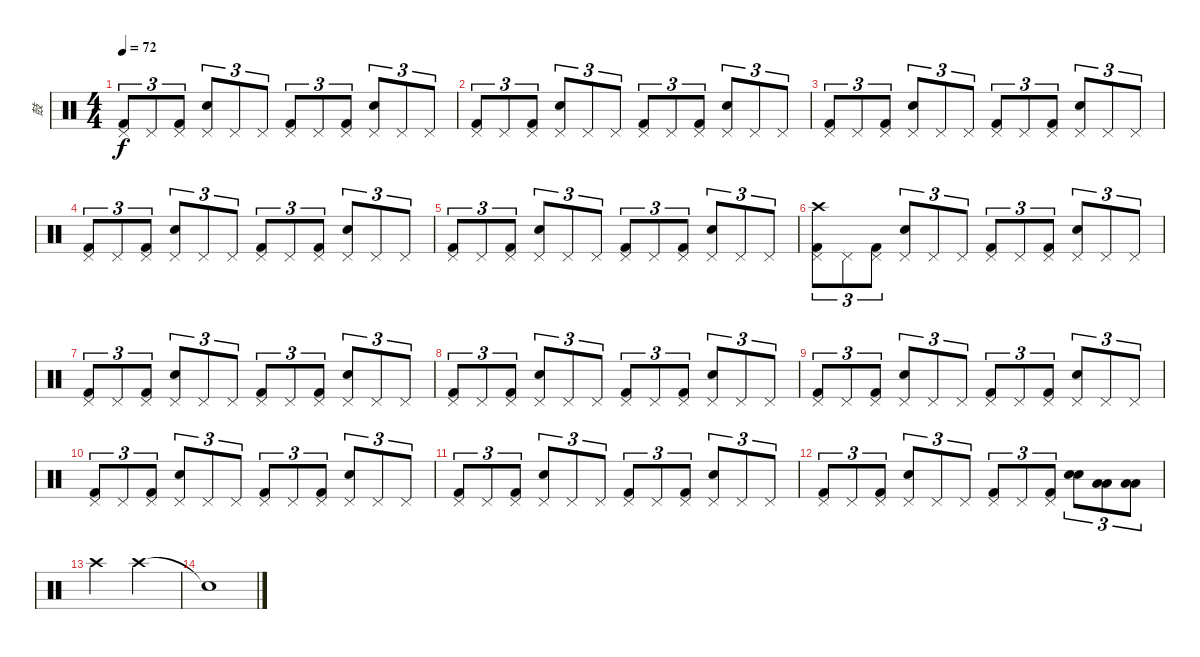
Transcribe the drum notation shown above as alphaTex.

\track ("鼓" "鼓") {instrument percussion}
\staff {score}
\articulation defaults
\ts (4 4)
\tempo 72
\clef neutral
\ks c
("Pedal Hi-Hat (hit)" "Kick (hit) 2").8{tu (3 2) dy f} "Pedal Hi-Hat (hit)".8{tu (3 2)} ("Pedal Hi-Hat (hit)" "Kick (hit) 2").8{tu (3 2)} ("Pedal Hi-Hat (hit)" "Electric Snare (hit)").8{tu (3 2)} "Pedal Hi-Hat (hit)".8{tu (3 2)} "Pedal Hi-Hat (hit)".8{tu (3 2)} ("Pedal Hi-Hat (hit)" "Kick (hit) 2").8{tu (3 2)} "Pedal Hi-Hat (hit)".8{tu (3 2)} ("Pedal Hi-Hat (hit)" "Kick (hit) 2").8{tu (3 2)} ("Pedal Hi-Hat (hit)" "Electric Snare (hit)").8{tu (3 2)} "Pedal Hi-Hat (hit)".8{tu (3 2)} "Pedal Hi-Hat (hit)".8{tu (3 2)} |
("Pedal Hi-Hat (hit)" "Kick (hit) 2").8{tu (3 2)} "Pedal Hi-Hat (hit)".8{tu (3 2)} ("Pedal Hi-Hat (hit)" "Kick (hit) 2").8{tu (3 2)} ("Pedal Hi-Hat (hit)" "Electric Snare (hit)").8{tu (3 2)} "Pedal Hi-Hat (hit)".8{tu (3 2)} "Pedal Hi-Hat (hit)".8{tu (3 2)} ("Pedal Hi-Hat (hit)" "Kick (hit) 2").8{tu (3 2)} "Pedal Hi-Hat (hit)".8{tu (3 2)} ("Pedal Hi-Hat (hit)" "Kick (hit) 2").8{tu (3 2)} ("Pedal Hi-Hat (hit)" "Electric Snare (hit)").8{tu (3 2)} "Pedal Hi-Hat (hit)".8{tu (3 2)} "Pedal Hi-Hat (hit)".8{tu (3 2)} |
("Pedal Hi-Hat (hit)" "Kick (hit) 2").8{tu (3 2)} "Pedal Hi-Hat (hit)".8{tu (3 2)} ("Pedal Hi-Hat (hit)" "Kick (hit) 2").8{tu (3 2)} ("Pedal Hi-Hat (hit)" "Electric Snare (hit)").8{tu (3 2)} "Pedal Hi-Hat (hit)".8{tu (3 2)} "Pedal Hi-Hat (hit)".8{tu (3 2)} ("Pedal Hi-Hat (hit)" "Kick (hit) 2").8{tu (3 2)} "Pedal Hi-Hat (hit)".8{tu (3 2)} ("Pedal Hi-Hat (hit)" "Kick (hit) 2").8{tu (3 2)} ("Pedal Hi-Hat (hit)" "Electric Snare (hit)").8{tu (3 2)} "Pedal Hi-Hat (hit)".8{tu (3 2)} "Pedal Hi-Hat (hit)".8{tu (3 2)} |
("Pedal Hi-Hat (hit)" "Kick (hit) 2").8{tu (3 2)} "Pedal Hi-Hat (hit)".8{tu (3 2)} ("Pedal Hi-Hat (hit)" "Kick (hit) 2").8{tu (3 2)} ("Pedal Hi-Hat (hit)" "Electric Snare (hit)").8{tu (3 2)} "Pedal Hi-Hat (hit)".8{tu (3 2)} "Pedal Hi-Hat (hit)".8{tu (3 2)} ("Pedal Hi-Hat (hit)" "Kick (hit) 2").8{tu (3 2)} "Pedal Hi-Hat (hit)".8{tu (3 2)} ("Pedal Hi-Hat (hit)" "Kick (hit) 2").8{tu (3 2)} ("Pedal Hi-Hat (hit)" "Electric Snare (hit)").8{tu (3 2)} "Pedal Hi-Hat (hit)".8{tu (3 2)} "Pedal Hi-Hat (hit)".8{tu (3 2)} |
("Pedal Hi-Hat (hit)" "Kick (hit) 2").8{tu (3 2)} "Pedal Hi-Hat (hit)".8{tu (3 2)} ("Pedal Hi-Hat (hit)" "Kick (hit) 2").8{tu (3 2)} ("Pedal Hi-Hat (hit)" "Electric Snare (hit)").8{tu (3 2)} "Pedal Hi-Hat (hit)".8{tu (3 2)} "Pedal Hi-Hat (hit)".8{tu (3 2)} ("Pedal Hi-Hat (hit)" "Kick (hit) 2").8{tu (3 2)} "Pedal Hi-Hat (hit)".8{tu (3 2)} ("Pedal Hi-Hat (hit)" "Kick (hit) 2").8{tu (3 2)} ("Pedal Hi-Hat (hit)" "Electric Snare (hit)").8{tu (3 2)} "Pedal Hi-Hat (hit)".8{tu (3 2)} "Pedal Hi-Hat (hit)".8{tu (3 2)} |
("Pedal Hi-Hat (hit)" "Kick (hit) 2" "Crash high (hit)").8{tu (3 2)} "Pedal Hi-Hat (hit)".8{tu (3 2)} ("Pedal Hi-Hat (hit)" "Kick (hit) 2").8{tu (3 2)} ("Pedal Hi-Hat (hit)" "Electric Snare (hit)").8{tu (3 2)} "Pedal Hi-Hat (hit)".8{tu (3 2)} "Pedal Hi-Hat (hit)".8{tu (3 2)} ("Pedal Hi-Hat (hit)" "Kick (hit) 2").8{tu (3 2)} "Pedal Hi-Hat (hit)".8{tu (3 2)} ("Pedal Hi-Hat (hit)" "Kick (hit) 2").8{tu (3 2)} ("Pedal Hi-Hat (hit)" "Electric Snare (hit)").8{tu (3 2)} "Pedal Hi-Hat (hit)".8{tu (3 2)} "Pedal Hi-Hat (hit)".8{tu (3 2)} |
("Pedal Hi-Hat (hit)" "Kick (hit) 2").8{tu (3 2)} "Pedal Hi-Hat (hit)".8{tu (3 2)} ("Pedal Hi-Hat (hit)" "Kick (hit) 2").8{tu (3 2)} ("Pedal Hi-Hat (hit)" "Electric Snare (hit)").8{tu (3 2)} "Pedal Hi-Hat (hit)".8{tu (3 2)} "Pedal Hi-Hat (hit)".8{tu (3 2)} ("Pedal Hi-Hat (hit)" "Kick (hit) 2").8{tu (3 2)} "Pedal Hi-Hat (hit)".8{tu (3 2)} ("Pedal Hi-Hat (hit)" "Kick (hit) 2").8{tu (3 2)} ("Pedal Hi-Hat (hit)" "Electric Snare (hit)").8{tu (3 2)} "Pedal Hi-Hat (hit)".8{tu (3 2)} "Pedal Hi-Hat (hit)".8{tu (3 2)} |
("Pedal Hi-Hat (hit)" "Kick (hit) 2").8{tu (3 2)} "Pedal Hi-Hat (hit)".8{tu (3 2)} ("Pedal Hi-Hat (hit)" "Kick (hit) 2").8{tu (3 2)} ("Pedal Hi-Hat (hit)" "Electric Snare (hit)").8{tu (3 2)} "Pedal Hi-Hat (hit)".8{tu (3 2)} "Pedal Hi-Hat (hit)".8{tu (3 2)} ("Pedal Hi-Hat (hit)" "Kick (hit) 2").8{tu (3 2)} "Pedal Hi-Hat (hit)".8{tu (3 2)} ("Pedal Hi-Hat (hit)" "Kick (hit) 2").8{tu (3 2)} ("Pedal Hi-Hat (hit)" "Electric Snare (hit)").8{tu (3 2)} "Pedal Hi-Hat (hit)".8{tu (3 2)} "Pedal Hi-Hat (hit)".8{tu (3 2)} |
("Pedal Hi-Hat (hit)" "Kick (hit) 2").8{tu (3 2)} "Pedal Hi-Hat (hit)".8{tu (3 2)} ("Pedal Hi-Hat (hit)" "Kick (hit) 2").8{tu (3 2)} ("Pedal Hi-Hat (hit)" "Electric Snare (hit)").8{tu (3 2)} "Pedal Hi-Hat (hit)".8{tu (3 2)} "Pedal Hi-Hat (hit)".8{tu (3 2)} ("Pedal Hi-Hat (hit)" "Kick (hit) 2").8{tu (3 2)} "Pedal Hi-Hat (hit)".8{tu (3 2)} ("Pedal Hi-Hat (hit)" "Kick (hit) 2").8{tu (3 2)} ("Pedal Hi-Hat (hit)" "Electric Snare (hit)").8{tu (3 2)} "Pedal Hi-Hat (hit)".8{tu (3 2)} "Pedal Hi-Hat (hit)".8{tu (3 2)} |
("Pedal Hi-Hat (hit)" "Kick (hit) 2").8{tu (3 2)} "Pedal Hi-Hat (hit)".8{tu (3 2)} ("Pedal Hi-Hat (hit)" "Kick (hit) 2").8{tu (3 2)} ("Pedal Hi-Hat (hit)" "Electric Snare (hit)").8{tu (3 2)} "Pedal Hi-Hat (hit)".8{tu (3 2)} "Pedal Hi-Hat (hit)".8{tu (3 2)} ("Pedal Hi-Hat (hit)" "Kick (hit) 2").8{tu (3 2)} "Pedal Hi-Hat (hit)".8{tu (3 2)} ("Pedal Hi-Hat (hit)" "Kick (hit) 2").8{tu (3 2)} ("Pedal Hi-Hat (hit)" "Electric Snare (hit)").8{tu (3 2)} "Pedal Hi-Hat (hit)".8{tu (3 2)} "Pedal Hi-Hat (hit)".8{tu (3 2)} |
("Pedal Hi-Hat (hit)" "Kick (hit) 2").8{tu (3 2)} "Pedal Hi-Hat (hit)".8{tu (3 2)} ("Pedal Hi-Hat (hit)" "Kick (hit) 2").8{tu (3 2)} ("Pedal Hi-Hat (hit)" "Electric Snare (hit)").8{tu (3 2)} "Pedal Hi-Hat (hit)".8{tu (3 2)} "Pedal Hi-Hat (hit)".8{tu (3 2)} ("Pedal Hi-Hat (hit)" "Kick (hit) 2").8{tu (3 2)} "Pedal Hi-Hat (hit)".8{tu (3 2)} ("Pedal Hi-Hat (hit)" "Kick (hit) 2").8{tu (3 2)} ("Pedal Hi-Hat (hit)" "Electric Snare (hit)").8{tu (3 2)} "Pedal Hi-Hat (hit)".8{tu (3 2)} "Pedal Hi-Hat (hit)".8{tu (3 2)} |
("Pedal Hi-Hat (hit)" "Kick (hit) 2").8{tu (3 2)} "Pedal Hi-Hat (hit)".8{tu (3 2)} ("Pedal Hi-Hat (hit)" "Kick (hit) 2").8{tu (3 2)} ("Pedal Hi-Hat (hit)" "Electric Snare (hit)").8{tu (3 2)} "Pedal Hi-Hat (hit)".8{tu (3 2)} "Pedal Hi-Hat (hit)".8{tu (3 2)} ("Pedal Hi-Hat (hit)" "Kick (hit) 2").8{tu (3 2)} "Pedal Hi-Hat (hit)".8{tu (3 2)} ("Pedal Hi-Hat (hit)" "Kick (hit) 2").8{tu (3 2)} ("Electric Snare (hit)" "Electric Snare (hit)").8{tu (3 2)} ("Low Tom (hit)" "Low Tom (hit)").8{tu (3 2)} ("Low Tom (hit)" "Low Tom (hit)").8{tu (3 2)} |
"Crash high (hit)".2 "Crash high (hit)".2 |
"Snare (hit)"{t}.1
